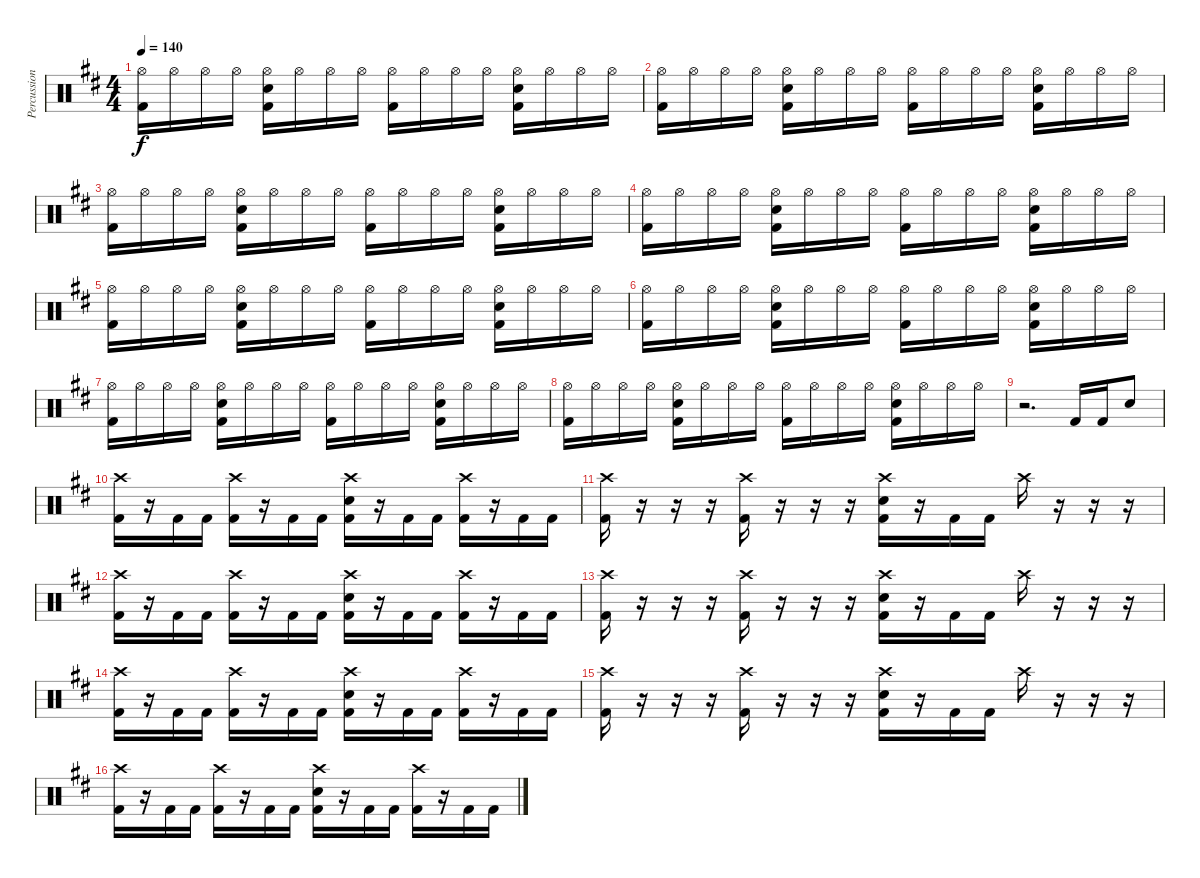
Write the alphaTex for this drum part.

\track ("Percussion" "Percussion") {instrument percussion}
\staff {score}
\articulation defaults
\ts (4 4)
\tempo 140
\clef neutral
\ks bminor
("Hi-Hat (open)" "Kick (hit) 2").16{dy f} "Hi-Hat (open)".16 "Hi-Hat (open)".16 "Hi-Hat (open)".16 ("Hi-Hat (open)" "Electric Snare (hit)" "Kick (hit) 2").16 "Hi-Hat (open)".16 "Hi-Hat (open)".16 "Hi-Hat (open)".16 ("Hi-Hat (open)" "Kick (hit) 2").16 "Hi-Hat (open)".16 "Hi-Hat (open)".16 "Hi-Hat (open)".16 ("Hi-Hat (open)" "Electric Snare (hit)" "Kick (hit) 2").16 "Hi-Hat (open)".16 "Hi-Hat (open)".16 "Hi-Hat (open)".16 |
("Hi-Hat (open)" "Kick (hit) 2").16 "Hi-Hat (open)".16 "Hi-Hat (open)".16 "Hi-Hat (open)".16 ("Hi-Hat (open)" "Electric Snare (hit)" "Kick (hit) 2").16 "Hi-Hat (open)".16 "Hi-Hat (open)".16 "Hi-Hat (open)".16 ("Hi-Hat (open)" "Kick (hit) 2").16 "Hi-Hat (open)".16 "Hi-Hat (open)".16 "Hi-Hat (open)".16 ("Hi-Hat (open)" "Electric Snare (hit)" "Kick (hit) 2").16 "Hi-Hat (open)".16 "Hi-Hat (open)".16 "Hi-Hat (open)".16 |
("Hi-Hat (open)" "Kick (hit) 2").16 "Hi-Hat (open)".16 "Hi-Hat (open)".16 "Hi-Hat (open)".16 ("Hi-Hat (open)" "Electric Snare (hit)" "Kick (hit) 2").16 "Hi-Hat (open)".16 "Hi-Hat (open)".16 "Hi-Hat (open)".16 ("Hi-Hat (open)" "Kick (hit) 2").16 "Hi-Hat (open)".16 "Hi-Hat (open)".16 "Hi-Hat (open)".16 ("Hi-Hat (open)" "Electric Snare (hit)" "Kick (hit) 2").16 "Hi-Hat (open)".16 "Hi-Hat (open)".16 "Hi-Hat (open)".16 |
("Hi-Hat (open)" "Kick (hit) 2").16 "Hi-Hat (open)".16 "Hi-Hat (open)".16 "Hi-Hat (open)".16 ("Hi-Hat (open)" "Electric Snare (hit)" "Kick (hit) 2").16 "Hi-Hat (open)".16 "Hi-Hat (open)".16 "Hi-Hat (open)".16 ("Hi-Hat (open)" "Kick (hit) 2").16 "Hi-Hat (open)".16 "Hi-Hat (open)".16 "Hi-Hat (open)".16 ("Hi-Hat (open)" "Electric Snare (hit)" "Kick (hit) 2").16 "Hi-Hat (open)".16 "Hi-Hat (open)".16 "Hi-Hat (open)".16 |
("Hi-Hat (open)" "Kick (hit) 2").16 "Hi-Hat (open)".16 "Hi-Hat (open)".16 "Hi-Hat (open)".16 ("Hi-Hat (open)" "Electric Snare (hit)" "Kick (hit) 2").16 "Hi-Hat (open)".16 "Hi-Hat (open)".16 "Hi-Hat (open)".16 ("Hi-Hat (open)" "Kick (hit) 2").16 "Hi-Hat (open)".16 "Hi-Hat (open)".16 "Hi-Hat (open)".16 ("Hi-Hat (open)" "Electric Snare (hit)" "Kick (hit) 2").16 "Hi-Hat (open)".16 "Hi-Hat (open)".16 "Hi-Hat (open)".16 |
("Hi-Hat (open)" "Kick (hit) 2").16 "Hi-Hat (open)".16 "Hi-Hat (open)".16 "Hi-Hat (open)".16 ("Hi-Hat (open)" "Electric Snare (hit)" "Kick (hit) 2").16 "Hi-Hat (open)".16 "Hi-Hat (open)".16 "Hi-Hat (open)".16 ("Hi-Hat (open)" "Kick (hit) 2").16 "Hi-Hat (open)".16 "Hi-Hat (open)".16 "Hi-Hat (open)".16 ("Hi-Hat (open)" "Electric Snare (hit)" "Kick (hit) 2").16 "Hi-Hat (open)".16 "Hi-Hat (open)".16 "Hi-Hat (open)".16 |
("Hi-Hat (open)" "Kick (hit) 2").16 "Hi-Hat (open)".16 "Hi-Hat (open)".16 "Hi-Hat (open)".16 ("Hi-Hat (open)" "Electric Snare (hit)" "Kick (hit) 2").16 "Hi-Hat (open)".16 "Hi-Hat (open)".16 "Hi-Hat (open)".16 ("Hi-Hat (open)" "Kick (hit) 2").16 "Hi-Hat (open)".16 "Hi-Hat (open)".16 "Hi-Hat (open)".16 ("Hi-Hat (open)" "Electric Snare (hit)" "Kick (hit) 2").16 "Hi-Hat (open)".16 "Hi-Hat (open)".16 "Hi-Hat (open)".16 |
("Hi-Hat (open)" "Kick (hit) 2").16 "Hi-Hat (open)".16 "Hi-Hat (open)".16 "Hi-Hat (open)".16 ("Hi-Hat (open)" "Electric Snare (hit)" "Kick (hit) 2").16 "Hi-Hat (open)".16 "Hi-Hat (open)".16 "Hi-Hat (open)".16 ("Hi-Hat (open)" "Kick (hit) 2").16 "Hi-Hat (open)".16 "Hi-Hat (open)".16 "Hi-Hat (open)".16 ("Hi-Hat (open)" "Electric Snare (hit)" "Kick (hit) 2").16 "Hi-Hat (open)".16 "Hi-Hat (open)".16 "Hi-Hat (open)".16 |
r.2{d} "Kick (hit) 2".16 "Kick (hit) 2".16 "Electric Snare (hit)".8 |
("Crash high (hit)" "Kick (hit) 2").16 r.16 "Kick (hit) 2".16 "Kick (hit) 2".16 ("Crash high (hit)" "Kick (hit) 2").16 r.16 "Kick (hit) 2".16 "Kick (hit) 2".16 ("Crash high (hit)" "Electric Snare (hit)" "Kick (hit) 2").16 r.16 "Kick (hit) 2".16 "Kick (hit) 2".16 ("Crash high (hit)" "Kick (hit) 2").16 r.16 "Kick (hit) 2".16 "Kick (hit) 2".16 |
("Crash high (hit)" "Kick (hit) 2").16 r.16 r.16 r.16 ("Crash high (hit)" "Kick (hit) 2").16 r.16 r.16 r.16 ("Crash high (hit)" "Electric Snare (hit)" "Kick (hit) 2").16 r.16 "Kick (hit) 2".16 "Kick (hit) 2".16 "Crash high (hit)".16 r.16 r.16 r.16 |
("Crash high (hit)" "Kick (hit) 2").16 r.16 "Kick (hit) 2".16 "Kick (hit) 2".16 ("Crash high (hit)" "Kick (hit) 2").16 r.16 "Kick (hit) 2".16 "Kick (hit) 2".16 ("Crash high (hit)" "Electric Snare (hit)" "Kick (hit) 2").16 r.16 "Kick (hit) 2".16 "Kick (hit) 2".16 ("Crash high (hit)" "Kick (hit) 2").16 r.16 "Kick (hit) 2".16 "Kick (hit) 2".16 |
("Crash high (hit)" "Kick (hit) 2").16 r.16 r.16 r.16 ("Crash high (hit)" "Kick (hit) 2").16 r.16 r.16 r.16 ("Crash high (hit)" "Electric Snare (hit)" "Kick (hit) 2").16 r.16 "Kick (hit) 2".16 "Kick (hit) 2".16 "Crash high (hit)".16 r.16 r.16 r.16 |
("Crash high (hit)" "Kick (hit) 2").16 r.16 "Kick (hit) 2".16 "Kick (hit) 2".16 ("Crash high (hit)" "Kick (hit) 2").16 r.16 "Kick (hit) 2".16 "Kick (hit) 2".16 ("Crash high (hit)" "Electric Snare (hit)" "Kick (hit) 2").16 r.16 "Kick (hit) 2".16 "Kick (hit) 2".16 ("Crash high (hit)" "Kick (hit) 2").16 r.16 "Kick (hit) 2".16 "Kick (hit) 2".16 |
("Crash high (hit)" "Kick (hit) 2").16 r.16 r.16 r.16 ("Crash high (hit)" "Kick (hit) 2").16 r.16 r.16 r.16 ("Crash high (hit)" "Electric Snare (hit)" "Kick (hit) 2").16 r.16 "Kick (hit) 2".16 "Kick (hit) 2".16 "Crash high (hit)".16 r.16 r.16 r.16 |
("Crash high (hit)" "Kick (hit) 2").16 r.16 "Kick (hit) 2".16 "Kick (hit) 2".16 ("Crash high (hit)" "Kick (hit) 2").16 r.16 "Kick (hit) 2".16 "Kick (hit) 2".16 ("Crash high (hit)" "Electric Snare (hit)" "Kick (hit) 2").16 r.16 "Kick (hit) 2".16 "Kick (hit) 2".16 ("Crash high (hit)" "Kick (hit) 2").16 r.16 "Kick (hit) 2".16 "Kick (hit) 2".16
